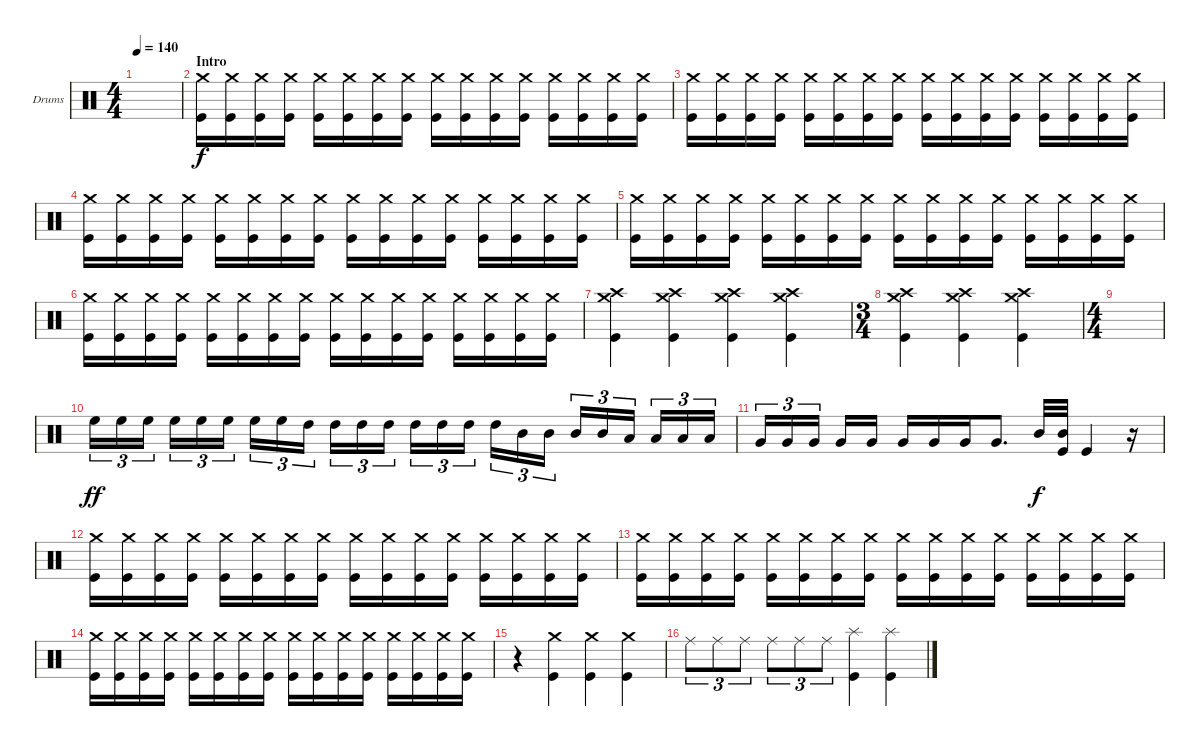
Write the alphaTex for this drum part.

\bracketExtendMode groupsimilarinstruments
\firstSystemTrackNameOrientation horizontal
\otherSystemsTrackNameOrientation horizontal
\track ("Drums" "Drums") {instrument percussion}
\staff {score}
\articulation defaults
\ts (4 4)
\beaming (8 2 2 2 2)
\tempo 140
\clef neutral
\ks c
|
\section ("" "Intro")
("Crash medium (hit)" "Kick (hit)").16 ("Crash medium (hit)" "Kick (hit)").16 ("Crash medium (hit)" "Kick (hit)").16 ("Crash medium (hit)" "Kick (hit)").16 ("Crash medium (hit)" "Kick (hit)").16 ("Crash medium (hit)" "Kick (hit)").16 ("Crash medium (hit)" "Kick (hit)").16 ("Crash medium (hit)" "Kick (hit)").16 ("Crash medium (hit)" "Kick (hit)").16 ("Crash medium (hit)" "Kick (hit)").16 ("Crash medium (hit)" "Kick (hit)").16 ("Crash medium (hit)" "Kick (hit)").16 ("Crash medium (hit)" "Kick (hit)").16 ("Crash medium (hit)" "Kick (hit)").16 ("Crash medium (hit)" "Kick (hit)").16 ("Crash medium (hit)" "Kick (hit)").16 |
("Crash medium (hit)" "Kick (hit)").16 ("Crash medium (hit)" "Kick (hit)").16 ("Crash medium (hit)" "Kick (hit)").16 ("Crash medium (hit)" "Kick (hit)").16 ("Crash medium (hit)" "Kick (hit)").16 ("Crash medium (hit)" "Kick (hit)").16 ("Crash medium (hit)" "Kick (hit)").16 ("Crash medium (hit)" "Kick (hit)").16 ("Crash medium (hit)" "Kick (hit)").16 ("Crash medium (hit)" "Kick (hit)").16 ("Crash medium (hit)" "Kick (hit)").16 ("Crash medium (hit)" "Kick (hit)").16 ("Crash medium (hit)" "Kick (hit)").16 ("Crash medium (hit)" "Kick (hit)").16 ("Crash medium (hit)" "Kick (hit)").16 ("Crash medium (hit)" "Kick (hit)").16 |
("Crash medium (hit)" "Kick (hit)").16 ("Crash medium (hit)" "Kick (hit)").16 ("Crash medium (hit)" "Kick (hit)").16 ("Crash medium (hit)" "Kick (hit)").16 ("Crash medium (hit)" "Kick (hit)").16 ("Crash medium (hit)" "Kick (hit)").16 ("Crash medium (hit)" "Kick (hit)").16 ("Crash medium (hit)" "Kick (hit)").16 ("Crash medium (hit)" "Kick (hit)").16 ("Crash medium (hit)" "Kick (hit)").16 ("Crash medium (hit)" "Kick (hit)").16 ("Crash medium (hit)" "Kick (hit)").16 ("Crash medium (hit)" "Kick (hit)").16 ("Crash medium (hit)" "Kick (hit)").16 ("Crash medium (hit)" "Kick (hit)").16 ("Crash medium (hit)" "Kick (hit)").16 |
("Crash medium (hit)" "Kick (hit)").16 ("Crash medium (hit)" "Kick (hit)").16 ("Crash medium (hit)" "Kick (hit)").16 ("Crash medium (hit)" "Kick (hit)").16 ("Crash medium (hit)" "Kick (hit)").16 ("Crash medium (hit)" "Kick (hit)").16 ("Crash medium (hit)" "Kick (hit)").16 ("Crash medium (hit)" "Kick (hit)").16 ("Crash medium (hit)" "Kick (hit)").16 ("Crash medium (hit)" "Kick (hit)").16 ("Crash medium (hit)" "Kick (hit)").16 ("Crash medium (hit)" "Kick (hit)").16 ("Crash medium (hit)" "Kick (hit)").16 ("Crash medium (hit)" "Kick (hit)").16 ("Crash medium (hit)" "Kick (hit)").16 ("Crash medium (hit)" "Kick (hit)").16 |
("Crash medium (hit)" "Kick (hit)").16 ("Crash medium (hit)" "Kick (hit)").16 ("Crash medium (hit)" "Kick (hit)").16 ("Crash medium (hit)" "Kick (hit)").16 ("Crash medium (hit)" "Kick (hit)").16 ("Crash medium (hit)" "Kick (hit)").16 ("Crash medium (hit)" "Kick (hit)").16 ("Crash medium (hit)" "Kick (hit)").16 ("Crash medium (hit)" "Kick (hit)").16 ("Crash medium (hit)" "Kick (hit)").16 ("Crash medium (hit)" "Kick (hit)").16 ("Crash medium (hit)" "Kick (hit)").16 ("Crash medium (hit)" "Kick (hit)").16 ("Crash medium (hit)" "Kick (hit)").16 ("Crash medium (hit)" "Kick (hit)").16 ("Crash medium (hit)" "Kick (hit)").16 |
("Crash medium (hit)" "Crash high (hit)" "Kick (hit)").4 ("Crash medium (hit)" "Crash high (hit)" "Kick (hit)").4 ("Crash medium (hit)" "Crash high (hit)" "Kick (hit)").4 ("Crash medium (hit)" "Crash high (hit)" "Kick (hit)").4 |
\ts (3 4)
("Crash medium (hit)" "Crash high (hit)" "Kick (hit)").4 ("Crash medium (hit)" "Crash high (hit)" "Kick (hit)").4 ("Crash medium (hit)" "Crash high (hit)" "Kick (hit)").4 |
\ts (4 4)
|
"High Floor Tom (hit)".16{tu (3 2) dy ff} "High Floor Tom (hit)".16{tu (3 2)} "High Floor Tom (hit)".16{tu (3 2)} "High Floor Tom (hit)".16{tu (3 2)} "High Floor Tom (hit)".16{tu (3 2)} "High Floor Tom (hit)".16{tu (3 2)} "High Floor Tom (hit)".16{tu (3 2)} "High Floor Tom (hit)".16{tu (3 2)} "High Tom (hit)".16{tu (3 2)} "High Tom (hit)".16{tu (3 2)} "High Tom (hit)".16{tu (3 2)} "High Tom (hit)".16{tu (3 2)} "High Tom (hit)".16{tu (3 2)} "High Tom (hit)".16{tu (3 2)} "High Tom (hit)".16{tu (3 2)} "High Tom (hit)".16{tu (3 2)} "Mid Tom (hit)".16{tu (3 2)} "Mid Tom (hit)".16{tu (3 2)} "Mid Tom (hit)".16{tu (3 2)} "Mid Tom (hit)".16{tu (3 2)} "Low Tom (hit)".16{tu (3 2)} "Low Tom (hit)".16{tu (3 2)} "Low Tom (hit)".16{tu (3 2)} "Low Tom (hit)".16{tu (3 2)} |
"Very Low Tom (hit)".16{tu (3 2)} "Very Low Tom (hit)".16{tu (3 2)} "Very Low Tom (hit)".16{tu (3 2)} "Very Low Tom (hit)".16 "Very Low Tom (hit)".16 "Very Low Tom (hit)".16 "Very Low Tom (hit)".16 "Very Low Tom (hit)".16 "Very Low Tom (hit)".8{d} "Mid Tom (hit)".32{dy f} ("Kick (hit)" "Mid Tom (hit)").32 "Kick (hit)".4 r.16 |
("Crash medium (hit)" "Kick (hit)").16 ("Crash medium (hit)" "Kick (hit)").16 ("Crash medium (hit)" "Kick (hit)").16 ("Crash medium (hit)" "Kick (hit)").16 ("Crash medium (hit)" "Kick (hit)").16 ("Crash medium (hit)" "Kick (hit)").16 ("Crash medium (hit)" "Kick (hit)").16 ("Crash medium (hit)" "Kick (hit)").16 ("Crash medium (hit)" "Kick (hit)").16 ("Crash medium (hit)" "Kick (hit)").16 ("Crash medium (hit)" "Kick (hit)").16 ("Crash medium (hit)" "Kick (hit)").16 ("Crash medium (hit)" "Kick (hit)").16 ("Crash medium (hit)" "Kick (hit)").16 ("Crash medium (hit)" "Kick (hit)").16 ("Crash medium (hit)" "Kick (hit)").16 |
("Crash medium (hit)" "Kick (hit)").16 ("Crash medium (hit)" "Kick (hit)").16 ("Crash medium (hit)" "Kick (hit)").16 ("Crash medium (hit)" "Kick (hit)").16 ("Crash medium (hit)" "Kick (hit)").16 ("Crash medium (hit)" "Kick (hit)").16 ("Crash medium (hit)" "Kick (hit)").16 ("Crash medium (hit)" "Kick (hit)").16 ("Crash medium (hit)" "Kick (hit)").16 ("Crash medium (hit)" "Kick (hit)").16 ("Crash medium (hit)" "Kick (hit)").16 ("Crash medium (hit)" "Kick (hit)").16 ("Crash medium (hit)" "Kick (hit)").16 ("Crash medium (hit)" "Kick (hit)").16 ("Crash medium (hit)" "Kick (hit)").16 ("Crash medium (hit)" "Kick (hit)").16 |
("Crash medium (hit)" "Kick (hit)").16 ("Crash medium (hit)" "Kick (hit)").16 ("Crash medium (hit)" "Kick (hit)").16 ("Crash medium (hit)" "Kick (hit)").16 ("Crash medium (hit)" "Kick (hit)").16 ("Crash medium (hit)" "Kick (hit)").16 ("Crash medium (hit)" "Kick (hit)").16 ("Crash medium (hit)" "Kick (hit)").16 ("Crash medium (hit)" "Kick (hit)").16 ("Crash medium (hit)" "Kick (hit)").16 ("Crash medium (hit)" "Kick (hit)").16 ("Crash medium (hit)" "Kick (hit)").16 ("Crash medium (hit)" "Kick (hit)").16 ("Crash medium (hit)" "Kick (hit)").16 ("Crash medium (hit)" "Kick (hit)").16 ("Crash medium (hit)" "Kick (hit)").16 |
r.4 ("Crash medium (hit)" "Kick (hit)").4 ("Crash medium (hit)" "Kick (hit)").4 ("Crash medium (hit)" "Kick (hit)").4 |
"Ride (middle)".8{tu (3 2)} "Ride (middle)".8{tu (3 2)} "Ride (middle)".8{tu (3 2)} "Ride (middle)".8{tu (3 2)} "Ride (middle)".8{tu (3 2)} "Ride (middle)".8{tu (3 2)} ("Kick (hit)" "Splash (hit)").4 ("Kick (hit)" "Splash (hit)").4
